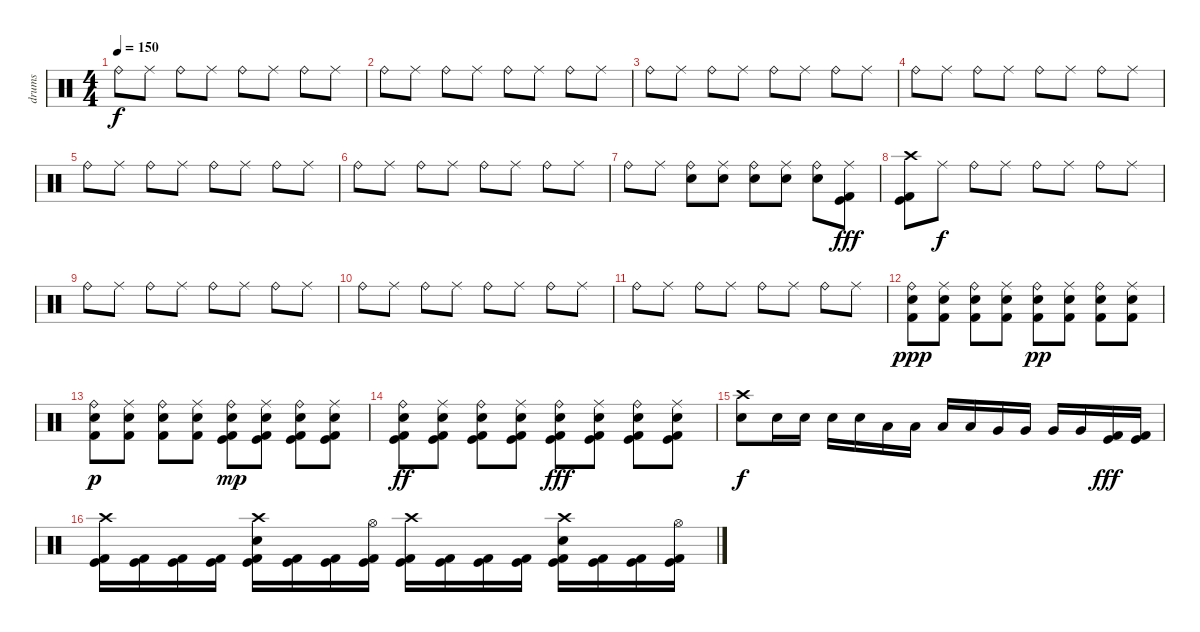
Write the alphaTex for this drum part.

\track ("drums" "drums") {instrument percussion}
\staff {score}
\articulation defaults
\ts (4 4)
\tempo 150
\clef neutral
\ks c "Ride (bell)".8{dy f} "Ride (middle)".8 "Ride (bell)".8 "Ride (middle)".8 "Ride (bell)".8 "Ride (middle)".8 "Ride (bell)".8 "Ride (middle)".8
|
"Ride (bell)".8 "Ride (middle)".8 "Ride (bell)".8 "Ride (middle)".8 "Ride (bell)".8 "Ride (middle)".8 "Ride (bell)".8 "Ride (middle)".8 |
"Ride (bell)".8 "Ride (middle)".8 "Ride (bell)".8 "Ride (middle)".8 "Ride (bell)".8 "Ride (middle)".8 "Ride (bell)".8 "Ride (middle)".8 |
"Ride (bell)".8 "Ride (middle)".8 "Ride (bell)".8 "Ride (middle)".8 "Ride (bell)".8 "Ride (middle)".8 "Ride (bell)".8 "Ride (middle)".8 |
"Ride (bell)".8 "Ride (middle)".8 "Ride (bell)".8 "Ride (middle)".8 "Ride (bell)".8 "Ride (middle)".8 "Ride (bell)".8 "Ride (middle)".8 |
"Ride (bell)".8 "Ride (middle)".8 "Ride (bell)".8 "Ride (middle)".8 "Ride (bell)".8 "Ride (middle)".8 "Ride (bell)".8 "Ride (middle)".8 |
"Ride (bell)".8 "Ride (middle)".8 ("Ride (bell)" "Electric Snare (hit)").8 ("Ride (middle)" "Electric Snare (hit)").8 ("Ride (bell)" "Electric Snare (hit)").8 ("Ride (middle)" "Electric Snare (hit)").8 ("Ride (bell)" "Electric Snare (hit)").8 ("Ride (middle)" "Kick (hit)" "Kick (hit) 2").8{dy fff} |
("Crash high (hit)" "Kick (hit)" "Kick (hit) 2").8 "Ride (middle)".8{dy f} "Ride (bell)".8 "Ride (middle)".8 "Ride (bell)".8 "Ride (middle)".8 "Ride (bell)".8 "Ride (middle)".8 |
"Ride (bell)".8 "Ride (middle)".8 "Ride (bell)".8 "Ride (middle)".8 "Ride (bell)".8 "Ride (middle)".8 "Ride (bell)".8 "Ride (middle)".8 |
"Ride (bell)".8 "Ride (middle)".8 "Ride (bell)".8 "Ride (middle)".8 "Ride (bell)".8 "Ride (middle)".8 "Ride (bell)".8 "Ride (middle)".8 |
"Ride (bell)".8 "Ride (middle)".8 "Ride (bell)".8 "Ride (middle)".8 "Ride (bell)".8 "Ride (middle)".8 "Ride (bell)".8 "Ride (middle)".8 |
("Ride (bell)" "Electric Snare (hit)" "Kick (hit) 2").8{dy ppp} ("Ride (middle)" "Electric Snare (hit)" "Kick (hit) 2").8 ("Ride (bell)" "Electric Snare (hit)" "Kick (hit) 2").8 ("Ride (middle)" "Electric Snare (hit)" "Kick (hit) 2").8 ("Ride (bell)" "Electric Snare (hit)" "Kick (hit) 2").8{dy pp} ("Ride (middle)" "Electric Snare (hit)" "Kick (hit) 2").8 ("Ride (bell)" "Electric Snare (hit)" "Kick (hit) 2").8 ("Ride (middle)" "Electric Snare (hit)" "Kick (hit) 2").8 |
("Ride (bell)" "Electric Snare (hit)" "Kick (hit) 2").8{dy p} ("Ride (middle)" "Electric Snare (hit)" "Kick (hit) 2").8 ("Ride (bell)" "Electric Snare (hit)" "Kick (hit) 2").8 ("Ride (middle)" "Electric Snare (hit)" "Kick (hit) 2").8 ("Ride (bell)" "Electric Snare (hit)" "Kick (hit)" "Kick (hit) 2").8{dy mp} ("Ride (middle)" "Electric Snare (hit)" "Kick (hit)" "Kick (hit) 2").8 ("Ride (bell)" "Electric Snare (hit)" "Kick (hit)" "Kick (hit) 2").8 ("Ride (middle)" "Electric Snare (hit)" "Kick (hit)" "Kick (hit) 2").8 |
("Ride (bell)" "Electric Snare (hit)" "Kick (hit)" "Kick (hit) 2").8{dy ff} ("Ride (middle)" "Electric Snare (hit)" "Kick (hit)" "Kick (hit) 2").8 ("Ride (bell)" "Electric Snare (hit)" "Kick (hit)" "Kick (hit) 2").8 ("Ride (middle)" "Electric Snare (hit)" "Kick (hit)" "Kick (hit) 2").8 ("Ride (bell)" "Electric Snare (hit)" "Kick (hit)" "Kick (hit) 2").8{dy fff} ("Ride (middle)" "Electric Snare (hit)" "Kick (hit)" "Kick (hit) 2").8 ("Ride (bell)" "Electric Snare (hit)" "Kick (hit)" "Kick (hit) 2").8 ("Ride (middle)" "Electric Snare (hit)" "Kick (hit)" "Kick (hit) 2").8 |
("Crash high (hit)" "Electric Snare (hit)").8{dy f} "Electric Snare (hit)".16 "Electric Snare (hit)".16 "Electric Snare (hit)".16 "Electric Snare (hit)".16 "Low Tom (hit)".16 "Low Tom (hit)".16 "Low Tom (hit)".16 "Low Tom (hit)".16 "Very Low Tom (hit)".16 "Very Low Tom (hit)".16 "Very Low Tom (hit)".16 "Very Low Tom (hit)".16 ("Kick (hit)" "Kick (hit) 2").16{dy fff} ("Kick (hit)" "Kick (hit) 2").16 |
("Crash high (hit)" "Kick (hit)" "Kick (hit) 2").16 ("Kick (hit)" "Kick (hit) 2").16 ("Kick (hit)" "Kick (hit) 2").16 ("Kick (hit)" "Kick (hit) 2").16 ("Crash high (hit)" "Electric Snare (hit)" "Kick (hit)" "Kick (hit) 2").16 ("Kick (hit)" "Kick (hit) 2").16 ("Kick (hit)" "Kick (hit) 2").16 ("Hi-Hat (open)" "Kick (hit)" "Kick (hit) 2").16 ("Crash high (hit)" "Kick (hit)" "Kick (hit) 2").16 ("Kick (hit)" "Kick (hit) 2").16 ("Kick (hit)" "Kick (hit) 2").16 ("Kick (hit)" "Kick (hit) 2").16 ("Crash high (hit)" "Electric Snare (hit)" "Kick (hit)" "Kick (hit) 2").16 ("Kick (hit)" "Kick (hit) 2").16 ("Kick (hit)" "Kick (hit) 2").16 ("Hi-Hat (open)" "Kick (hit)" "Kick (hit) 2").16
